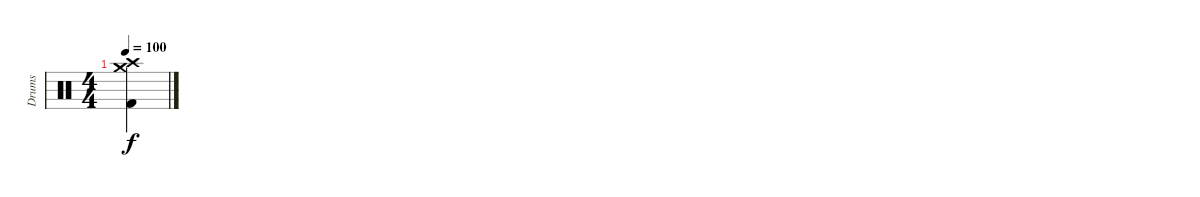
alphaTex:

\track ("Drums" "Drums") {instrument percussion}
\staff {score}
\articulation defaults
\ts (4 4)
\tempo 100
\clef neutral
\ks c
("Crash high (hit)" "Crash medium (hit)" "Kick (hit) 2").4{dy f}
